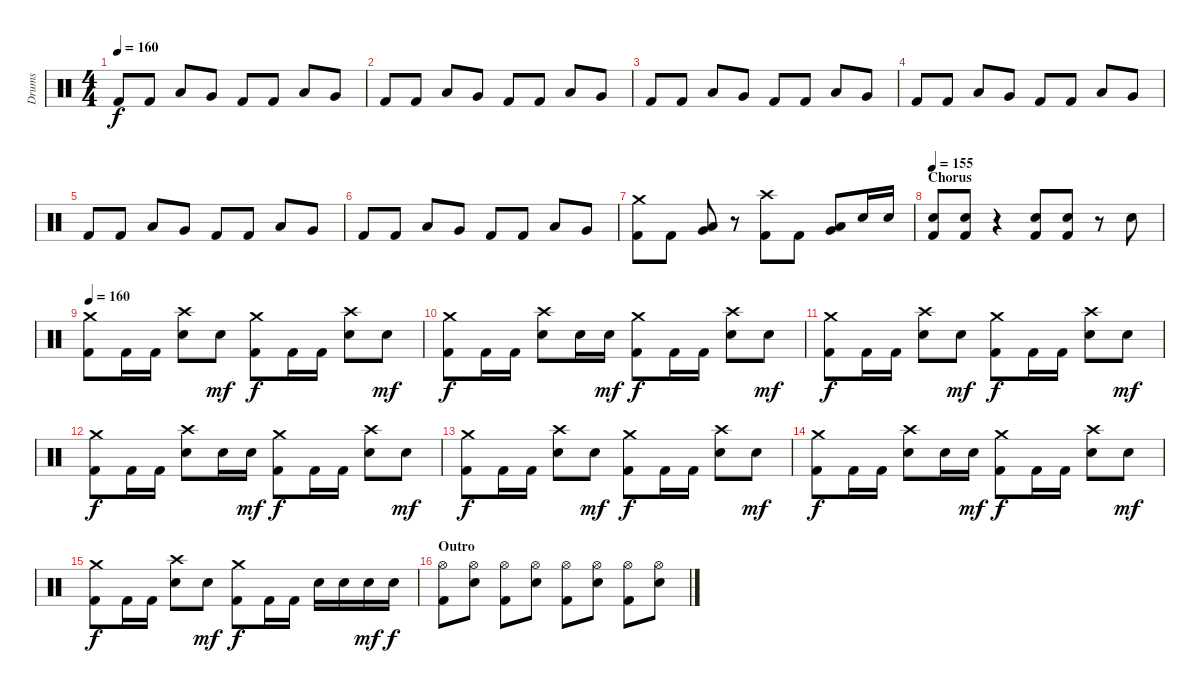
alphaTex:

\track ("Drums" "Drums") {instrument percussion}
\staff {score}
\articulation defaults
\ts (4 4)
\tempo 160
\clef neutral
\ks c "Kick (hit) 2".8{dy f} "Kick (hit) 2".8 "Low Tom (hit)".8 "Very Low Tom (hit)".8 "Kick (hit) 2".8 "Kick (hit) 2".8 "Low Tom (hit)".8 "Very Low Tom (hit)".8
|
"Kick (hit) 2".8 "Kick (hit) 2".8 "Low Tom (hit)".8 "Very Low Tom (hit)".8 "Kick (hit) 2".8 "Kick (hit) 2".8 "Low Tom (hit)".8 "Very Low Tom (hit)".8 |
"Kick (hit) 2".8 "Kick (hit) 2".8 "Low Tom (hit)".8 "Very Low Tom (hit)".8 "Kick (hit) 2".8 "Kick (hit) 2".8 "Low Tom (hit)".8 "Very Low Tom (hit)".8 |
"Kick (hit) 2".8 "Kick (hit) 2".8 "Low Tom (hit)".8 "Very Low Tom (hit)".8 "Kick (hit) 2".8 "Kick (hit) 2".8 "Low Tom (hit)".8 "Very Low Tom (hit)".8 |
"Kick (hit) 2".8 "Kick (hit) 2".8 "Low Tom (hit)".8 "Very Low Tom (hit)".8 "Kick (hit) 2".8 "Kick (hit) 2".8 "Low Tom (hit)".8 "Very Low Tom (hit)".8 |
"Kick (hit) 2".8 "Kick (hit) 2".8 "Low Tom (hit)".8 "Very Low Tom (hit)".8 "Kick (hit) 2".8 "Kick (hit) 2".8 "Low Tom (hit)".8 "Very Low Tom (hit)".8 |
("Crash medium (hit)" "Kick (hit) 2").8 "Kick (hit) 2".8 ("Low Floor Tom (hit)" "Very Low Tom (hit)").8 r.8 ("Crash high (hit)" "Kick (hit) 2").8 "Kick (hit) 2".8 ("Low Floor Tom (hit)" "Very Low Tom (hit)").8 "Snare (hit) 2".16 "Snare (hit) 2".16 |
\section ("" "Chorus")
\tempo 155
("Snare (hit) 2" "Kick (hit) 2").8 ("Snare (hit) 2" "Kick (hit) 2").8 r.4 ("Snare (hit) 2" "Kick (hit) 2").8 ("Snare (hit) 2" "Kick (hit) 2").8 r.8 "Snare (hit) 2".8 |
\tempo 160
("Crash medium (hit)" "Kick (hit) 2").8 "Kick (hit) 2".16 "Kick (hit) 2".16 ("Crash high (hit)" "Snare (hit) 2").8 "Snare (hit) 2".8{dy mf} ("Crash medium (hit)" "Kick (hit) 2").8{dy f} "Kick (hit) 2".16 "Kick (hit) 2".16 ("Crash high (hit)" "Snare (hit) 2").8 "Snare (hit) 2".8{dy mf} |
("Crash medium (hit)" "Kick (hit) 2").8{dy f} "Kick (hit) 2".16 "Kick (hit) 2".16 ("Crash high (hit)" "Snare (hit) 2").8 "Snare (hit) 2".16 "Snare (hit) 2".16{dy mf} ("Crash medium (hit)" "Kick (hit) 2").8{dy f} "Kick (hit) 2".16 "Kick (hit) 2".16 ("Crash high (hit)" "Snare (hit) 2").8 "Snare (hit) 2".8{dy mf} |
("Crash medium (hit)" "Kick (hit) 2").8{dy f} "Kick (hit) 2".16 "Kick (hit) 2".16 ("Crash high (hit)" "Snare (hit) 2").8 "Snare (hit) 2".8{dy mf} ("Crash medium (hit)" "Kick (hit) 2").8{dy f} "Kick (hit) 2".16 "Kick (hit) 2".16 ("Crash high (hit)" "Snare (hit) 2").8 "Snare (hit) 2".8{dy mf} |
("Crash medium (hit)" "Kick (hit) 2").8{dy f} "Kick (hit) 2".16 "Kick (hit) 2".16 ("Crash high (hit)" "Snare (hit) 2").8 "Snare (hit) 2".16 "Snare (hit) 2".16{dy mf} ("Crash medium (hit)" "Kick (hit) 2").8{dy f} "Kick (hit) 2".16 "Kick (hit) 2".16 ("Crash high (hit)" "Snare (hit) 2").8 "Snare (hit) 2".8{dy mf} |
("Crash medium (hit)" "Kick (hit) 2").8{dy f} "Kick (hit) 2".16 "Kick (hit) 2".16 ("Crash high (hit)" "Snare (hit) 2").8 "Snare (hit) 2".8{dy mf} ("Crash medium (hit)" "Kick (hit) 2").8{dy f} "Kick (hit) 2".16 "Kick (hit) 2".16 ("Crash high (hit)" "Snare (hit) 2").8 "Snare (hit) 2".8{dy mf} |
("Crash medium (hit)" "Kick (hit) 2").8{dy f} "Kick (hit) 2".16 "Kick (hit) 2".16 ("Crash high (hit)" "Snare (hit) 2").8 "Snare (hit) 2".16 "Snare (hit) 2".16{dy mf} ("Crash medium (hit)" "Kick (hit) 2").8{dy f} "Kick (hit) 2".16 "Kick (hit) 2".16 ("Crash high (hit)" "Snare (hit) 2").8 "Snare (hit) 2".8{dy mf} |
("Crash medium (hit)" "Kick (hit) 2").8{dy f} "Kick (hit) 2".16 "Kick (hit) 2".16 ("Crash high (hit)" "Snare (hit) 2").8 "Snare (hit) 2".8{dy mf} ("Crash medium (hit)" "Kick (hit) 2").8{dy f} "Kick (hit) 2".16 "Kick (hit) 2".16 "Snare (hit) 2".16 "Snare (hit) 2".16 "Snare (hit) 2".16{dy mf} "Snare (hit) 2".16{dy f} |
\section ("" "Outro")
("Hi-Hat (open)" "Kick (hit) 2").8 ("Hi-Hat (open)" "Snare (hit) 2").8 ("Hi-Hat (open)" "Kick (hit) 2").8 ("Hi-Hat (open)" "Snare (hit) 2").8 ("Hi-Hat (open)" "Kick (hit) 2").8 ("Hi-Hat (open)" "Snare (hit) 2").8 ("Hi-Hat (open)" "Kick (hit) 2").8 ("Hi-Hat (open)" "Snare (hit) 2").8
